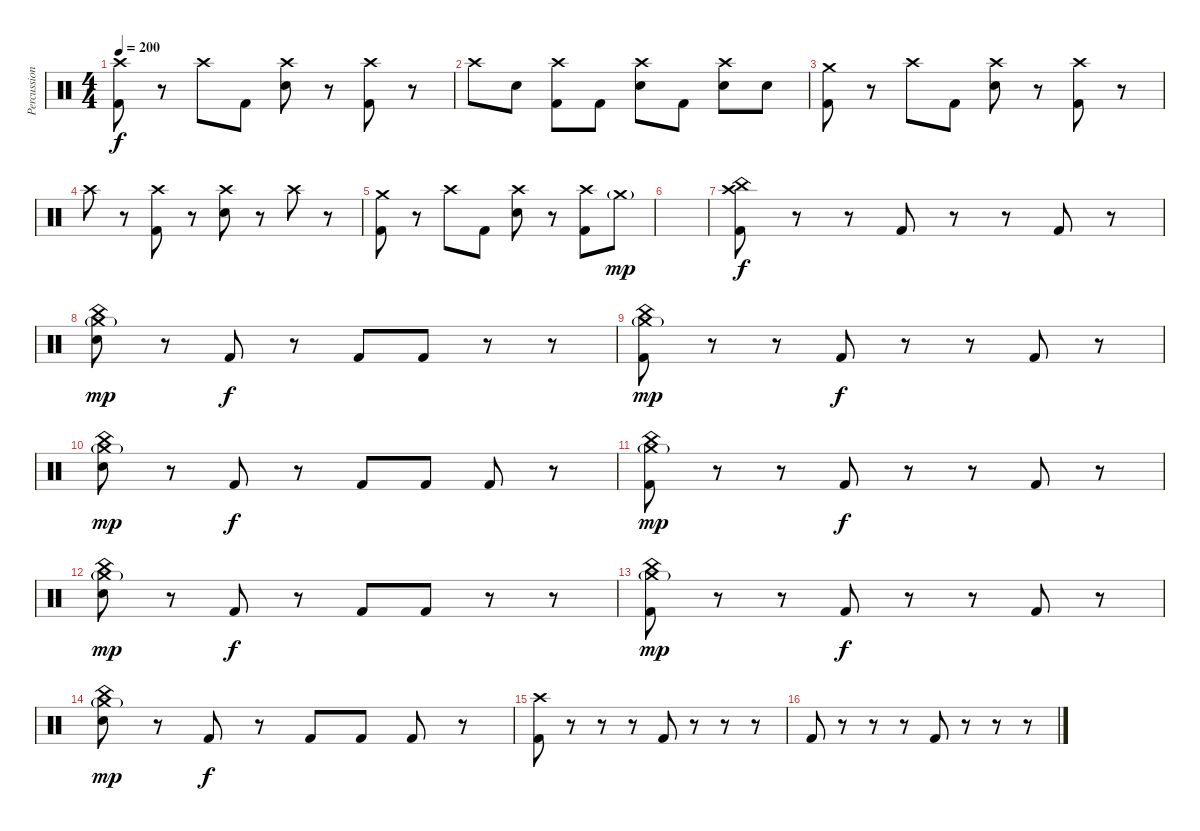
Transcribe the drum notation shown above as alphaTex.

\track ("Percussion" "Percussion") {instrument percussion}
\staff {score}
\articulation defaults
\ts (4 4)
\tempo 200
\clef neutral
\ks c
("Crash high (hit)" "Kick (hit) 2").8{dy f} r.8 "Crash high (hit)".8 "Kick (hit) 2".8 ("Crash high (hit)" "Snare (hit) 2").8 r.8 ("Crash high (hit)" "Kick (hit) 2").8 r.8 |
"Crash high (hit)".8 "Snare (hit) 2".8 ("Crash high (hit)" "Kick (hit) 2").8 "Kick (hit) 2".8 ("Crash high (hit)" "Snare (hit) 2").8 "Kick (hit) 2".8 ("Crash high (hit)" "Snare (hit) 2").8 "Snare (hit) 2".8 |
("Crash medium (hit)" "Kick (hit) 2").8 r.8 "Crash high (hit)".8 "Kick (hit) 2".8 ("Crash high (hit)" "Snare (hit) 2").8 r.8 ("Crash high (hit)" "Kick (hit) 2").8 r.8 |
"Crash high (hit)".8 r.8 ("Crash high (hit)" "Kick (hit) 2").8 r.8 ("Crash high (hit)" "Snare (hit) 2").8 r.8 "Crash high (hit)".8 r.8 |
("Crash medium (hit)" "Kick (hit) 2").8 r.8 "Crash high (hit)".8 "Kick (hit) 2".8 ("Crash high (hit)" "Snare (hit) 2").8 r.8 ("Crash high (hit)" "Kick (hit) 2").8 "Crash medium (hit)"{g}.8{dy mp} |
|
("China (hit)" "Crash high (hit)" "Kick (hit) 2").8{dy f volume 16} r.8 r.8 "Kick (hit) 2".8 r.8 r.8 "Kick (hit) 2".8 r.8 |
("Crash medium (hit)"{g} "China (hit)" "Snare (hit) 2").8{dy mp} r.8 "Kick (hit) 2".8{dy f} r.8 "Kick (hit) 2".8 "Kick (hit) 2".8 r.8 r.8 |
("Crash medium (hit)"{g} "China (hit)" "Kick (hit) 2").8{dy mp} r.8 r.8 "Kick (hit) 2".8{dy f} r.8 r.8 "Kick (hit) 2".8 r.8 |
("Crash medium (hit)"{g} "China (hit)" "Snare (hit) 2").8{dy mp} r.8 "Kick (hit) 2".8{dy f} r.8 "Kick (hit) 2".8 "Kick (hit) 2".8 "Kick (hit) 2".8 r.8 |
("Crash medium (hit)"{g} "China (hit)" "Kick (hit) 2").8{dy mp} r.8 r.8 "Kick (hit) 2".8{dy f} r.8 r.8 "Kick (hit) 2".8 r.8 |
("China (hit)" "Crash medium (hit)"{g} "Snare (hit) 2").8{dy mp} r.8 "Kick (hit) 2".8{dy f} r.8 "Kick (hit) 2".8 "Kick (hit) 2".8 r.8 r.8 |
("Crash medium (hit)"{g} "China (hit)" "Kick (hit) 2").8{dy mp} r.8 r.8 "Kick (hit) 2".8{dy f} r.8 r.8 "Kick (hit) 2".8 r.8 |
("Crash medium (hit)"{g} "China (hit)" "Snare (hit) 2").8{dy mp} r.8 "Kick (hit) 2".8{dy f} r.8 "Kick (hit) 2".8 "Kick (hit) 2".8 "Kick (hit) 2".8 r.8 |
("Crash high (hit)" "Kick (hit) 2").8 r.8 r.8 r.8 "Kick (hit) 2".8 r.8 r.8 r.8 |
"Kick (hit) 2".8 r.8 r.8 r.8 "Kick (hit) 2".8 r.8 r.8 r.8
